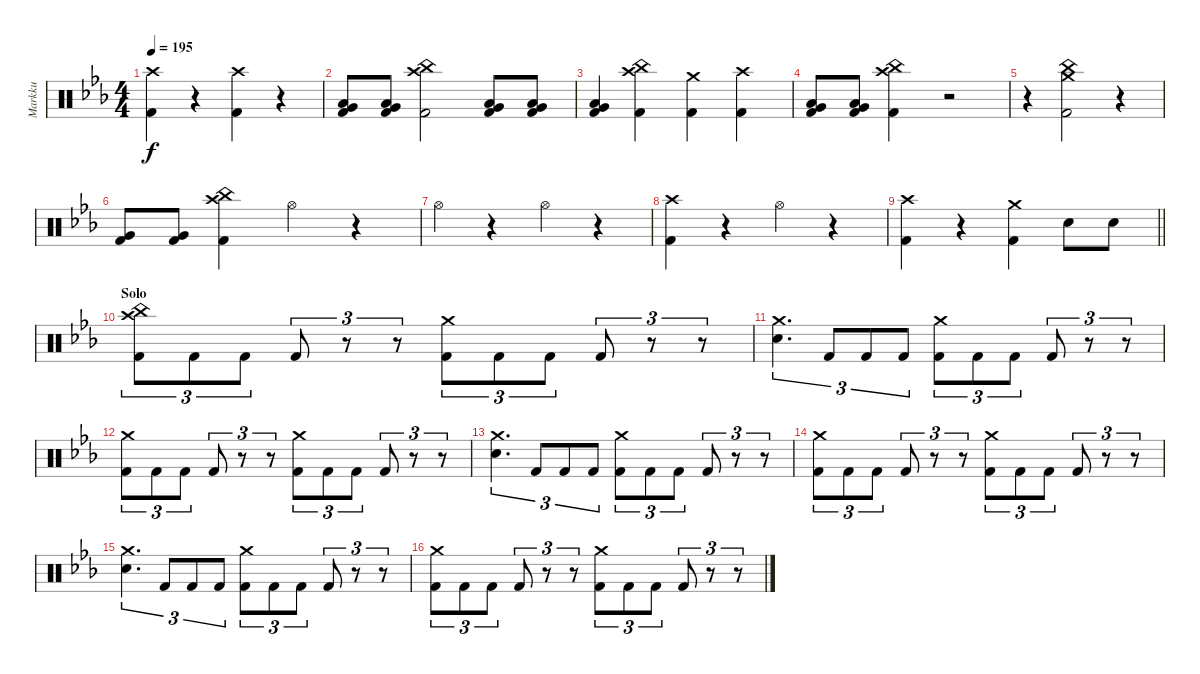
\track ("Markku" "Markku") {instrument percussion}
\staff {score}
\articulation defaults
\ts (4 4)
\tempo 195
\clef neutral
\ks cminor
("Crash high (hit)" "Kick (hit) 2").4{dy f} r.4 ("Kick (hit) 2" "Crash high (hit)").4 r.4 |
("Very Low Tom (hit)" "Kick (hit) 2" "Low Tom (hit)").8 ("Very Low Tom (hit)" "Kick (hit) 2" "Low Tom (hit)").8 ("Crash high (hit)" "China (hit)" "Kick (hit) 2").2 ("Kick (hit) 2" "Low Tom (hit)" "Very Low Tom (hit)").8 ("Kick (hit) 2" "Low Tom (hit)" "Very Low Tom (hit)").8 |
("Kick (hit) 2" "Low Tom (hit)" "Very Low Tom (hit)").4 ("Kick (hit) 2" "Crash high (hit)" "China (hit)").4 ("Kick (hit) 2" "Crash medium (hit)").4 ("Kick (hit) 2" "Crash high (hit)").4 |
("Kick (hit) 2" "Low Tom (hit)" "Very Low Tom (hit)").8 ("Kick (hit) 2" "Low Tom (hit)" "Very Low Tom (hit)").8 ("Crash high (hit)" "China (hit)" "Kick (hit) 2").4 r.2 |
r.4 ("Kick (hit) 2" "China (hit)" "Crash medium (hit)").2 r.4 |
("Very Low Tom (hit)" "Kick (hit) 2").8 ("Very Low Tom (hit)" "Kick (hit) 2").8 ("Crash high (hit)" "Kick (hit) 2" "China (hit)").4 "Hi-Hat (open)".4 r.4 |
"Hi-Hat (open)".4 r.4 "Hi-Hat (open)".4 r.4 |
("Kick (hit) 2" "Crash high (hit)").4 r.4 "Hi-Hat (open)".4 r.4 |
\barLineRight lightlight
("Kick (hit) 2" "Crash high (hit)").4 r.4 ("Crash medium (hit)" "Kick (hit) 2").4 "Snare (hit) 2".8 "Snare (hit) 2".8 |
\section ("" "Solo")
("Kick (hit) 2" "Crash high (hit)" "China (hit)").8{tu (3 2)} "Kick (hit) 2".8{tu (3 2)} "Kick (hit) 2".8{tu (3 2)} "Kick (hit) 2".8{tu (3 2)} r.8{tu (3 2)} r.8{tu (3 2)} ("Kick (hit) 2" "Crash medium (hit)").8{tu (3 2)} "Kick (hit) 2".8{tu (3 2)} "Kick (hit) 2".8{tu (3 2)} "Kick (hit) 2".8{tu (3 2)} r.8{tu (3 2)} r.8{tu (3 2)} |
("Crash medium (hit)" "Snare (hit) 2").4{d tu (3 2)} "Kick (hit) 2".8{tu (3 2)} "Kick (hit) 2".8{tu (3 2)} "Kick (hit) 2".8{tu (3 2)} ("Kick (hit) 2" "Crash medium (hit)").8{tu (3 2)} "Kick (hit) 2".8{tu (3 2)} "Kick (hit) 2".8{tu (3 2)} "Kick (hit) 2".8{tu (3 2)} r.8{tu (3 2)} r.8{tu (3 2)} |
("Kick (hit) 2" "Crash medium (hit)").8{tu (3 2)} "Kick (hit) 2".8{tu (3 2)} "Kick (hit) 2".8{tu (3 2)} "Kick (hit) 2".8{tu (3 2)} r.8{tu (3 2)} r.8{tu (3 2)} ("Kick (hit) 2" "Crash medium (hit)").8{tu (3 2)} "Kick (hit) 2".8{tu (3 2)} "Kick (hit) 2".8{tu (3 2)} "Kick (hit) 2".8{tu (3 2)} r.8{tu (3 2)} r.8{tu (3 2)} |
("Crash medium (hit)" "Snare (hit) 2").4{d tu (3 2)} "Kick (hit) 2".8{tu (3 2)} "Kick (hit) 2".8{tu (3 2)} "Kick (hit) 2".8{tu (3 2)} ("Kick (hit) 2" "Crash medium (hit)").8{tu (3 2)} "Kick (hit) 2".8{tu (3 2)} "Kick (hit) 2".8{tu (3 2)} "Kick (hit) 2".8{tu (3 2)} r.8{tu (3 2)} r.8{tu (3 2)} |
("Kick (hit) 2" "Crash medium (hit)").8{tu (3 2)} "Kick (hit) 2".8{tu (3 2)} "Kick (hit) 2".8{tu (3 2)} "Kick (hit) 2".8{tu (3 2)} r.8{tu (3 2)} r.8{tu (3 2)} ("Kick (hit) 2" "Crash medium (hit)").8{tu (3 2)} "Kick (hit) 2".8{tu (3 2)} "Kick (hit) 2".8{tu (3 2)} "Kick (hit) 2".8{tu (3 2)} r.8{tu (3 2)} r.8{tu (3 2)} |
("Crash medium (hit)" "Snare (hit) 2").4{d tu (3 2)} "Kick (hit) 2".8{tu (3 2)} "Kick (hit) 2".8{tu (3 2)} "Kick (hit) 2".8{tu (3 2)} ("Kick (hit) 2" "Crash medium (hit)").8{tu (3 2)} "Kick (hit) 2".8{tu (3 2)} "Kick (hit) 2".8{tu (3 2)} "Kick (hit) 2".8{tu (3 2)} r.8{tu (3 2)} r.8{tu (3 2)} |
("Kick (hit) 2" "Crash medium (hit)").8{tu (3 2)} "Kick (hit) 2".8{tu (3 2)} "Kick (hit) 2".8{tu (3 2)} "Kick (hit) 2".8{tu (3 2)} r.8{tu (3 2)} r.8{tu (3 2)} ("Kick (hit) 2" "Crash medium (hit)").8{tu (3 2)} "Kick (hit) 2".8{tu (3 2)} "Kick (hit) 2".8{tu (3 2)} "Kick (hit) 2".8{tu (3 2)} r.8{tu (3 2)} r.8{tu (3 2)}
